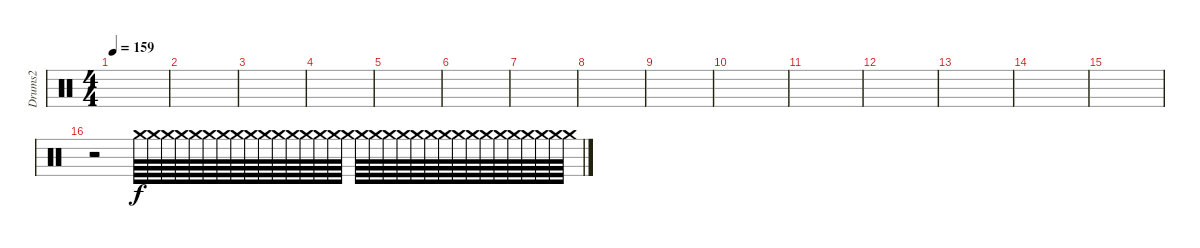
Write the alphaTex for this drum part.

\track ("Drums2" "Drums2") {instrument percussion}
\staff {score}
\articulation defaults
\ts (4 4)
\tempo 159
\clef neutral
\ks c
|
|
|
|
|
|
|
|
|
|
|
|
|
|
|
r.2 "Crash medium (hit)".64 "Crash medium (hit)".64 "Crash medium (hit)".64 "Crash medium (hit)".64 "Crash medium (hit)".64 "Crash medium (hit)".64 "Crash medium (hit)".64 "Crash medium (hit)".64 "Crash medium (hit)".64 "Crash medium (hit)".64 "Crash medium (hit)".64 "Crash medium (hit)".64 "Crash medium (hit)".64 "Crash medium (hit)".64 "Crash medium (hit)".64 "Crash medium (hit)".64 "Crash medium (hit)".64 "Crash medium (hit)".64 "Crash medium (hit)".64 "Crash medium (hit)".64 "Crash medium (hit)".64 "Crash medium (hit)".64 "Crash medium (hit)".64 "Crash medium (hit)".64 "Crash medium (hit)".64 "Crash medium (hit)".64 "Crash medium (hit)".64 "Crash medium (hit)".64 "Crash medium (hit)".64 "Crash medium (hit)"{x}.64{dy f} "Crash medium (hit)"{x}.64 "Crash medium (hit)"{x}.64
